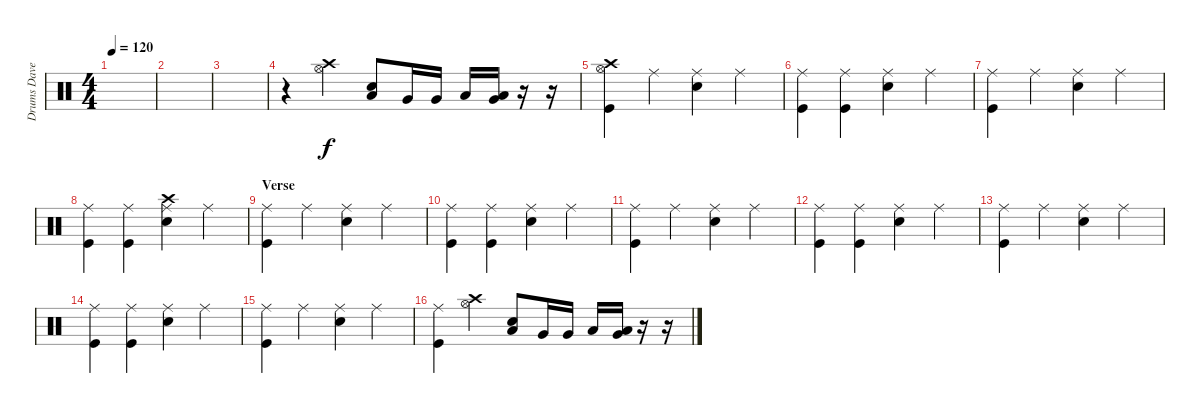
\track ("Drums Dave Grohl" "Drums Dave") {instrument percussion}
\staff {score}
\articulation defaults
\ts (4 4)
\tempo 120
\clef neutral
\ks c
|
|
|
r.4 ("Crash high (hit)" "Hi-Hat (open)").4 ("Low Tom (hit)" "Electric Snare (hit)").8 "Very Low Tom (hit)".16 "Very Low Tom (hit)".16 "Low Floor Tom (hit)".16 ("Low Tom (hit)" "Very Low Tom (hit)").16 r.16 r.16 |
("Crash high (hit)" "Hi-Hat (open)" "Kick (hit)").4 "Ride (middle)".4 ("Ride (middle)" "Electric Snare (hit)").4 "Ride (middle)".4 |
("Ride (middle)" "Kick (hit)").4 ("Ride (middle)" "Kick (hit)").4 ("Ride (middle)" "Electric Snare (hit)").4 "Ride (middle)".4 |
("Ride (middle)" "Kick (hit)").4 "Ride (middle)".4 ("Ride (middle)" "Electric Snare (hit)").4 "Ride (middle)".4 |
("Ride (middle)" "Kick (hit)").4 ("Ride (middle)" "Kick (hit)").4 ("Ride (middle)" "Crash high (hit)" "Electric Snare (hit)").4 "Ride (middle)".4 |
\section ("" "Verse")
("Ride (middle)" "Kick (hit)").4 "Ride (middle)".4 ("Ride (middle)" "Electric Snare (hit)").4 "Ride (middle)".4 |
("Ride (middle)" "Kick (hit)").4 ("Ride (middle)" "Kick (hit)").4 ("Ride (middle)" "Electric Snare (hit)").4 "Ride (middle)".4 |
("Ride (middle)" "Kick (hit)").4 "Ride (middle)".4 ("Ride (middle)" "Electric Snare (hit)").4 "Ride (middle)".4 |
("Ride (middle)" "Kick (hit)").4 ("Ride (middle)" "Kick (hit)").4 ("Ride (middle)" "Electric Snare (hit)").4 "Ride (middle)".4 |
("Ride (middle)" "Kick (hit)").4 "Ride (middle)".4 ("Ride (middle)" "Electric Snare (hit)").4 "Ride (middle)".4 |
("Ride (middle)" "Kick (hit)").4 ("Ride (middle)" "Kick (hit)").4 ("Ride (middle)" "Electric Snare (hit)").4 "Ride (middle)".4 |
("Ride (middle)" "Kick (hit)").4 "Ride (middle)".4 ("Ride (middle)" "Electric Snare (hit)").4 "Ride (middle)".4 |
("Ride (middle)" "Kick (hit)").4 ("Crash high (hit)" "Hi-Hat (open)").4 ("Low Tom (hit)" "Electric Snare (hit)").8 "Very Low Tom (hit)".16 "Very Low Tom (hit)".16 "Low Floor Tom (hit)".16 ("Low Tom (hit)" "Very Low Tom (hit)").16 r.16 r.16
